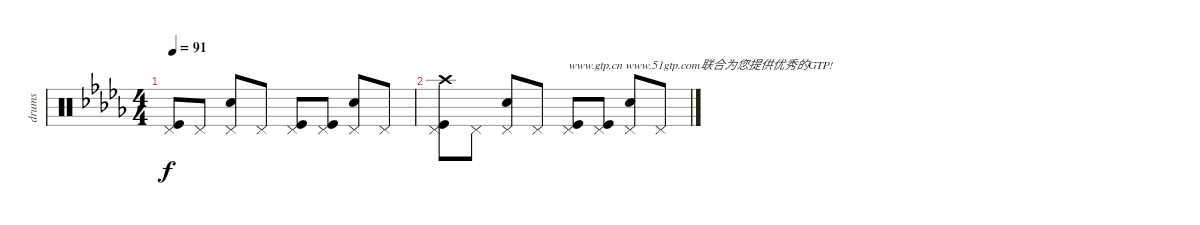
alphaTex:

\track ("drums" "drums") {instrument percussion}
\staff {score}
\articulation defaults
\ts (4 4)
\tempo 91
\clef neutral
\ks db
("Pedal Hi-Hat (hit)" "Kick (hit)").8{dy f} "Pedal Hi-Hat (hit)".8 ("Pedal Hi-Hat (hit)" "Snare (hit) 2").8 "Pedal Hi-Hat (hit)".8 ("Pedal Hi-Hat (hit)" "Kick (hit)").8 ("Pedal Hi-Hat (hit)" "Kick (hit)").8 ("Pedal Hi-Hat (hit)" "Snare (hit) 2").8 "Pedal Hi-Hat (hit)".8 |
("Crash high (hit)" "Pedal Hi-Hat (hit)" "Kick (hit)").8 "Pedal Hi-Hat (hit)".8 ("Pedal Hi-Hat (hit)" "Electric Snare (hit)").8 "Pedal Hi-Hat (hit)".8 ("Pedal Hi-Hat (hit)" "Kick (hit)").8{txt "www.gtp.cn www.51gtp.com联合为您提供优秀的GTP!"} ("Pedal Hi-Hat (hit)" "Kick (hit)").8 ("Pedal Hi-Hat (hit)" "Electric Snare (hit)").8 "Pedal Hi-Hat (hit)".8
